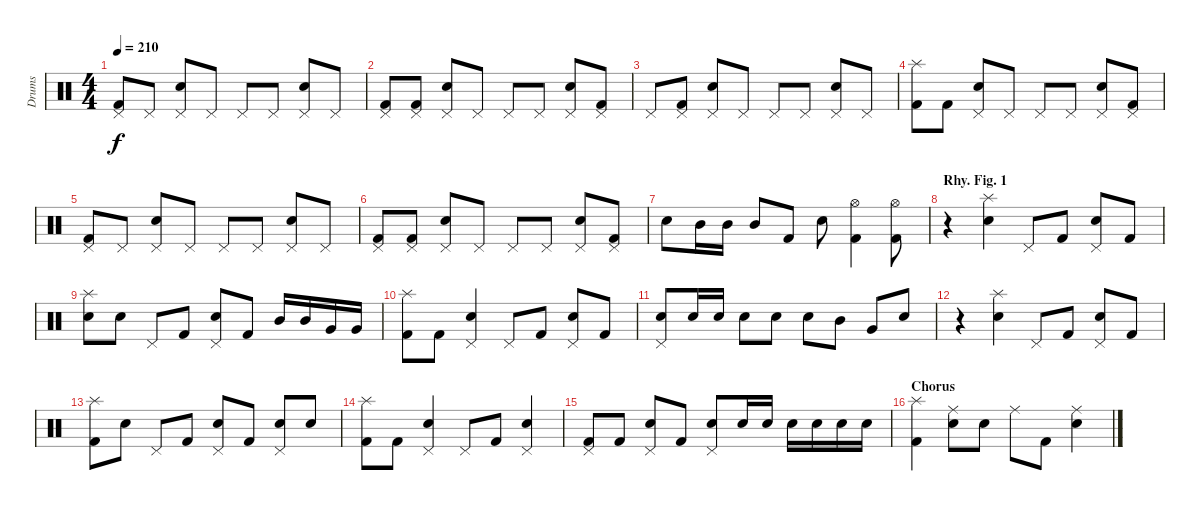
\track ("Drums" "Drums") {instrument percussion}
\staff {score}
\articulation defaults
\ts (4 4)
\tempo 210
\clef neutral
\ks c
("Pedal Hi-Hat (hit)" "Kick (hit) 2").8{dy f} "Pedal Hi-Hat (hit)".8 ("Pedal Hi-Hat (hit)" "Electric Snare (hit)").8 "Pedal Hi-Hat (hit)".8 "Pedal Hi-Hat (hit)".8 "Pedal Hi-Hat (hit)".8 ("Pedal Hi-Hat (hit)" "Electric Snare (hit)").8 "Pedal Hi-Hat (hit)".8 |
("Pedal Hi-Hat (hit)" "Kick (hit) 2").8 ("Pedal Hi-Hat (hit)" "Kick (hit) 2").8 ("Pedal Hi-Hat (hit)" "Electric Snare (hit)").8 "Pedal Hi-Hat (hit)".8 "Pedal Hi-Hat (hit)".8 "Pedal Hi-Hat (hit)".8 ("Pedal Hi-Hat (hit)" "Electric Snare (hit)").8 ("Pedal Hi-Hat (hit)" "Kick (hit) 2").8 |
"Pedal Hi-Hat (hit)".8 ("Pedal Hi-Hat (hit)" "Kick (hit) 2").8 ("Pedal Hi-Hat (hit)" "Electric Snare (hit)").8 "Pedal Hi-Hat (hit)".8 "Pedal Hi-Hat (hit)".8 "Pedal Hi-Hat (hit)".8 ("Pedal Hi-Hat (hit)" "Electric Snare (hit)").8 "Pedal Hi-Hat (hit)".8 |
("Splash (hit)" "Kick (hit) 2").8 "Kick (hit) 2".8 ("Pedal Hi-Hat (hit)" "Electric Snare (hit)").8 "Pedal Hi-Hat (hit)".8 "Pedal Hi-Hat (hit)".8 "Pedal Hi-Hat (hit)".8 ("Pedal Hi-Hat (hit)" "Electric Snare (hit)").8 ("Pedal Hi-Hat (hit)" "Kick (hit) 2").8 |
("Pedal Hi-Hat (hit)" "Kick (hit) 2").8 "Pedal Hi-Hat (hit)".8 ("Pedal Hi-Hat (hit)" "Electric Snare (hit)").8 "Pedal Hi-Hat (hit)".8 "Pedal Hi-Hat (hit)".8 "Pedal Hi-Hat (hit)".8 ("Pedal Hi-Hat (hit)" "Electric Snare (hit)").8 "Pedal Hi-Hat (hit)".8 |
("Pedal Hi-Hat (hit)" "Kick (hit) 2").8 ("Pedal Hi-Hat (hit)" "Kick (hit) 2").8 ("Pedal Hi-Hat (hit)" "Electric Snare (hit)").8 "Pedal Hi-Hat (hit)".8 "Pedal Hi-Hat (hit)".8 "Pedal Hi-Hat (hit)".8 ("Pedal Hi-Hat (hit)" "Electric Snare (hit)").8 ("Pedal Hi-Hat (hit)" "Kick (hit) 2").8 |
"Electric Snare (hit)".8 "Mid Tom (hit)".16 "Mid Tom (hit)".16 "Mid Tom (hit)".8 "Kick (hit) 2".8 "Electric Snare (hit)".8 ("Hi-Hat (open)" "Kick (hit) 2").4 ("Hi-Hat (open)" "Kick (hit) 2").8 |
\section ("" "Rhy. Fig. 1")
r.4 ("Splash (hit)" "Electric Snare (hit)").4 "Pedal Hi-Hat (hit)".8 "Kick (hit) 2".8 ("Pedal Hi-Hat (hit)" "Electric Snare (hit)").8 "Kick (hit) 2".8 |
("Splash (hit)" "Electric Snare (hit)").8 "Electric Snare (hit)".8 "Pedal Hi-Hat (hit)".8 "Kick (hit) 2".8 ("Pedal Hi-Hat (hit)" "Electric Snare (hit)").8 "Kick (hit) 2".8 "Mid Tom (hit)".16 "Mid Tom (hit)".16 "Very Low Tom (hit)".16 "Very Low Tom (hit)".16 |
("Splash (hit)" "Kick (hit) 2").8 "Kick (hit) 2".8 ("Pedal Hi-Hat (hit)" "Electric Snare (hit)").4 "Pedal Hi-Hat (hit)".8 "Kick (hit) 2".8 ("Pedal Hi-Hat (hit)" "Electric Snare (hit)").8 "Kick (hit) 2".8 |
("Pedal Hi-Hat (hit)" "Electric Snare (hit)").8 "Electric Snare (hit)".16 "Electric Snare (hit)".16 "Electric Snare (hit)".8 "Electric Snare (hit)".8 "Electric Snare (hit)".8 "Mid Tom (hit)".8 "Very Low Tom (hit)".8 "Electric Snare (hit)".8 |
r.4 ("Splash (hit)" "Electric Snare (hit)").4 "Pedal Hi-Hat (hit)".8 "Kick (hit) 2".8 ("Pedal Hi-Hat (hit)" "Electric Snare (hit)").8 "Kick (hit) 2".8 |
("Splash (hit)" "Kick (hit) 2").8 "Electric Snare (hit)".8 "Pedal Hi-Hat (hit)".8 "Kick (hit) 2".8 ("Pedal Hi-Hat (hit)" "Electric Snare (hit)").8 "Kick (hit) 2".8 ("Pedal Hi-Hat (hit)" "Electric Snare (hit)").8 "Electric Snare (hit)".8 |
("Splash (hit)" "Kick (hit) 2").8 "Kick (hit) 2".8 ("Pedal Hi-Hat (hit)" "Electric Snare (hit)").4 "Pedal Hi-Hat (hit)".8 "Kick (hit) 2".8 ("Pedal Hi-Hat (hit)" "Electric Snare (hit)").4 |
("Pedal Hi-Hat (hit)" "Kick (hit) 2").8 "Kick (hit) 2".8 ("Pedal Hi-Hat (hit)" "Electric Snare (hit)").8 "Kick (hit) 2".8 ("Pedal Hi-Hat (hit)" "Electric Snare (hit)").8 "Electric Snare (hit)".16 "Electric Snare (hit)".16 "Electric Snare (hit)".16 "Electric Snare (hit)".16 "Electric Snare (hit)".16 "Electric Snare (hit)".16 |
\section ("" "Chorus")
("Splash (hit)" "Kick (hit) 2").4 ("Ride (middle)" "Electric Snare (hit)").8 "Electric Snare (hit)".8 "Ride (middle)".8 "Kick (hit) 2".8 ("Ride (middle)" "Electric Snare (hit)").4
